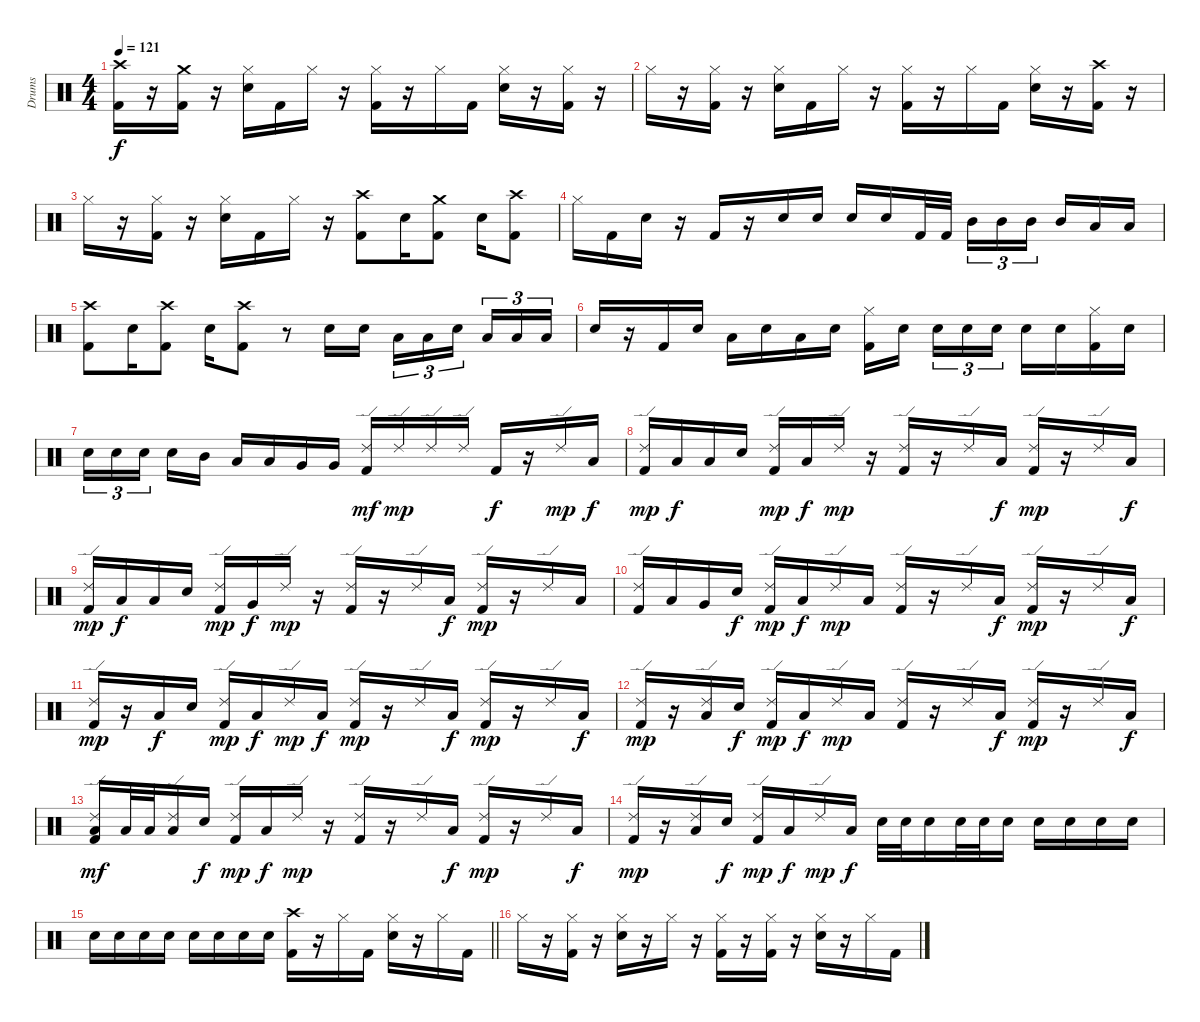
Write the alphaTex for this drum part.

\track ("Drums" "Drums") {instrument percussion}
\staff {score}
\articulation defaults
\ts (4 4)
\section ("" "")
\tempo 121
\clef neutral
\ks c
("Crash high (hit)" "Kick (hit) 2").16{dy f} r.16 ("Crash medium (hit)" "Kick (hit) 2").16 r.16 ("Hi-Hat (closed)" "Snare (hit) 2").16 "Kick (hit) 2".16 "Hi-Hat (closed)".16 r.16 ("Hi-Hat (closed)" "Kick (hit) 2").16 r.16 "Hi-Hat (closed)".16 "Kick (hit) 2".16 ("Hi-Hat (closed)" "Snare (hit) 2").16 r.16 ("Hi-Hat (closed)" "Kick (hit) 2").16 r.16 |
"Hi-Hat (closed)".16 r.16 ("Hi-Hat (closed)" "Kick (hit) 2").16 r.16 ("Hi-Hat (closed)" "Snare (hit) 2").16 "Kick (hit) 2".16 "Hi-Hat (closed)".16 r.16 ("Hi-Hat (closed)" "Kick (hit) 2").16 r.16 "Hi-Hat (closed)".16 "Kick (hit) 2".16 ("Hi-Hat (closed)" "Snare (hit) 2").16 r.16 ("Crash high (hit)" "Kick (hit) 2").16 r.16 |
"Hi-Hat (closed)".16 r.16 ("Hi-Hat (closed)" "Kick (hit) 2").16 r.16 ("Hi-Hat (closed)" "Snare (hit) 2").16 "Kick (hit) 2".16 "Hi-Hat (closed)".16 r.16 ("Crash high (hit)" "Kick (hit) 2").8 "Snare (hit) 2".16 ("Crash medium (hit)" "Kick (hit) 2").8 "Snare (hit) 2".16 ("Crash high (hit)" "Kick (hit) 2").8 |
"Hi-Hat (closed)".16 "Kick (hit) 2".16 "Snare (hit) 2".16 r.16 "Kick (hit) 2".16 r.16 "Snare (hit) 2".16 "Snare (hit) 2".16 "Snare (hit) 2".16 "Snare (hit) 2".16 "Kick (hit) 2".32 "Kick (hit) 2".32{beam splitsecondary} "Mid Tom (hit)".16{tu (3 2)} "Mid Tom (hit)".16{tu (3 2)} "Mid Tom (hit)".16{tu (3 2) beam splitsecondary} "Mid Tom (hit)".16 "Low Tom (hit)".16 "Low Tom (hit)".16 |
("Crash high (hit)" "Kick (hit) 2").8 "Snare (hit) 2".16 ("Crash high (hit)" "Kick (hit) 2").8 "Snare (hit) 2".16 ("Crash high (hit)" "Kick (hit) 2").8 r.8 "Snare (hit) 2".16 "Snare (hit) 2".16 "Low Tom (hit)".16{tu (3 2)} "Low Tom (hit)".16{tu (3 2)} "Snare (hit) 2".16{tu (3 2) beam splitsecondary} "Low Tom (hit)".16{tu (3 2)} "Low Tom (hit)".16{tu (3 2)} "Low Tom (hit)".16{tu (3 2)} |
"Snare (hit) 2".16 r.16 "Kick (hit) 2".16 "Snare (hit) 2".16 "Low Tom (hit)".16 "Snare (hit) 2".16 "Low Tom (hit)".16 "Snare (hit) 2".16 ("Hi-Hat (closed)" "Kick (hit) 2").16 "Snare (hit) 2".16{beam splitsecondary} "Snare (hit) 2".16{tu (3 2)} "Snare (hit) 2".16{tu (3 2)} "Snare (hit) 2".16{tu (3 2)} "Snare (hit) 2".16 "Snare (hit) 2".16 ("Hi-Hat (closed)" "Kick (hit) 2").16 "Snare (hit) 2".16 |
"Snare (hit) 2".16{tu (3 2)} "Snare (hit) 2".16{tu (3 2)} "Snare (hit) 2".16{tu (3 2) beam splitsecondary} "Snare (hit) 2".16 "Mid Tom (hit)".16 "Low Tom (hit)".16 "Low Tom (hit)".16 "Very Low Tom (hit)".16 "Very Low Tom (hit)".16 ("Ride (edge) 2" "Kick (hit) 2").16{dy mf} "Ride (edge) 2".16{dy mp} "Ride (edge) 2".16 "Ride (edge) 2".16 "Kick (hit) 2".16{dy f} r.16 "Ride (edge) 2".16{dy mp} "Low Tom (hit)".16{dy f} |
("Ride (edge) 2" "Kick (hit) 2").16{dy mp} "Low Tom (hit)".16{dy f} "Low Tom (hit)".16 "Snare (hit) 2".16 ("Ride (edge) 2" "Kick (hit) 2").16{dy mp} "Low Tom (hit)".16{dy f} "Ride (edge) 2".16{dy mp} r.16 ("Ride (edge) 2" "Kick (hit) 2").16 r.16 "Ride (edge) 2".16 "Low Tom (hit)".16{dy f} ("Ride (edge) 2" "Kick (hit) 2").16{dy mp} r.16 "Ride (edge) 2".16 "Low Tom (hit)".16{dy f} |
("Ride (edge) 2" "Kick (hit) 2").16{dy mp} "Low Tom (hit)".16{dy f} "Low Tom (hit)".16 "Snare (hit) 2".16 ("Ride (edge) 2" "Kick (hit) 2").16{dy mp} "Very Low Tom (hit)".16{dy f} "Ride (edge) 2".16{dy mp} r.16 ("Ride (edge) 2" "Kick (hit) 2").16 r.16 "Ride (edge) 2".16 "Low Tom (hit)".16{dy f} ("Ride (edge) 2" "Kick (hit) 2").16{dy mp} r.16 "Ride (edge) 2".16 "Low Tom (hit)".16 |
("Ride (edge) 2" "Kick (hit) 2").16 "Low Tom (hit)".16 "Very Low Tom (hit)".16 "Snare (hit) 2".16{dy f} ("Ride (edge) 2" "Kick (hit) 2").16{dy mp} "Low Tom (hit)".16{dy f} "Ride (edge) 2".16{dy mp} "Low Tom (hit)".16 ("Ride (edge) 2" "Kick (hit) 2").16 r.16 "Ride (edge) 2".16 "Low Tom (hit)".16{dy f} ("Ride (edge) 2" "Kick (hit) 2").16{dy mp} r.16 "Ride (edge) 2".16 "Low Tom (hit)".16{dy f} |
("Ride (edge) 2" "Kick (hit) 2").16{dy mp} r.16 "Low Tom (hit)".16{dy f} "Snare (hit) 2".16 ("Ride (edge) 2" "Kick (hit) 2").16{dy mp} "Low Tom (hit)".16{dy f} "Ride (edge) 2".16{dy mp} "Low Tom (hit)".16{dy f} ("Ride (edge) 2" "Kick (hit) 2").16{dy mp} r.16 "Ride (edge) 2".16 "Low Tom (hit)".16{dy f} ("Ride (edge) 2" "Kick (hit) 2").16{dy mp} r.16 "Ride (edge) 2".16 "Low Tom (hit)".16{dy f} |
("Ride (edge) 2" "Kick (hit) 2").16{dy mp} r.16 ("Ride (edge) 2" "Low Tom (hit)").16 "Snare (hit) 2".16{dy f} ("Ride (edge) 2" "Kick (hit) 2").16{dy mp} "Low Tom (hit)".16{dy f} "Ride (edge) 2".16{dy mp} "Low Tom (hit)".16 ("Ride (edge) 2" "Kick (hit) 2").16 r.16 "Ride (edge) 2".16 "Low Tom (hit)".16{dy f} ("Ride (edge) 2" "Kick (hit) 2").16{dy mp} r.16 "Ride (edge) 2".16 "Low Tom (hit)".16{dy f} |
("Ride (edge) 2" "Low Tom (hit)" "Kick (hit) 2").16{dy mf} "Low Tom (hit)".32 "Low Tom (hit)".32 ("Ride (edge) 2" "Low Tom (hit)").16 "Snare (hit) 2".16{dy f} ("Ride (edge) 2" "Kick (hit) 2").16{dy mp} "Low Tom (hit)".16{dy f} "Ride (edge) 2".16{dy mp} r.16 ("Ride (edge) 2" "Kick (hit) 2").16 r.16 "Ride (edge) 2".16 "Low Tom (hit)".16{dy f} ("Ride (edge) 2" "Kick (hit) 2").16{dy mp} r.16 "Ride (edge) 2".16 "Low Tom (hit)".16{dy f} |
("Ride (edge) 2" "Kick (hit) 2").16{dy mp} r.16 ("Ride (edge) 2" "Low Tom (hit)").16 "Snare (hit) 2".16{dy f} ("Ride (edge) 2" "Kick (hit) 2").16{dy mp} "Low Tom (hit)".16{dy f} "Ride (edge) 2".16{dy mp} "Low Tom (hit)".16{dy f} "Snare (hit) 2".32 "Snare (hit) 2".32 "Snare (hit) 2".16 "Snare (hit) 2".32 "Snare (hit) 2".32 "Snare (hit) 2".16 "Snare (hit) 2".16 "Snare (hit) 2".16 "Snare (hit) 2".16 "Snare (hit) 2".16 |
\barLineRight lightlight "Snare (hit) 2".16 "Snare (hit) 2".16 "Snare (hit) 2".16 "Snare (hit) 2".16 "Snare (hit) 2".16 "Snare (hit) 2".16 "Snare (hit) 2".16 "Snare (hit) 2".16
("Crash high (hit)" "Kick (hit) 2").16 r.16 "Hi-Hat (closed)".16 "Kick (hit) 2".16 ("Hi-Hat (closed)" "Snare (hit) 2").16 r.16 "Hi-Hat (closed)".16 "Kick (hit) 2".16 |
\section ("" "")
"Hi-Hat (closed)".16 r.16 ("Hi-Hat (closed)" "Kick (hit) 2").16 r.16 ("Hi-Hat (closed)" "Snare (hit) 2").16 r.16 "Hi-Hat (closed)".16 r.16 ("Hi-Hat (closed)" "Kick (hit) 2").16 r.16 ("Hi-Hat (closed)" "Kick (hit) 2").16 r.16 ("Hi-Hat (closed)" "Snare (hit) 2").16 r.16 "Hi-Hat (closed)".16 "Kick (hit) 2".16
